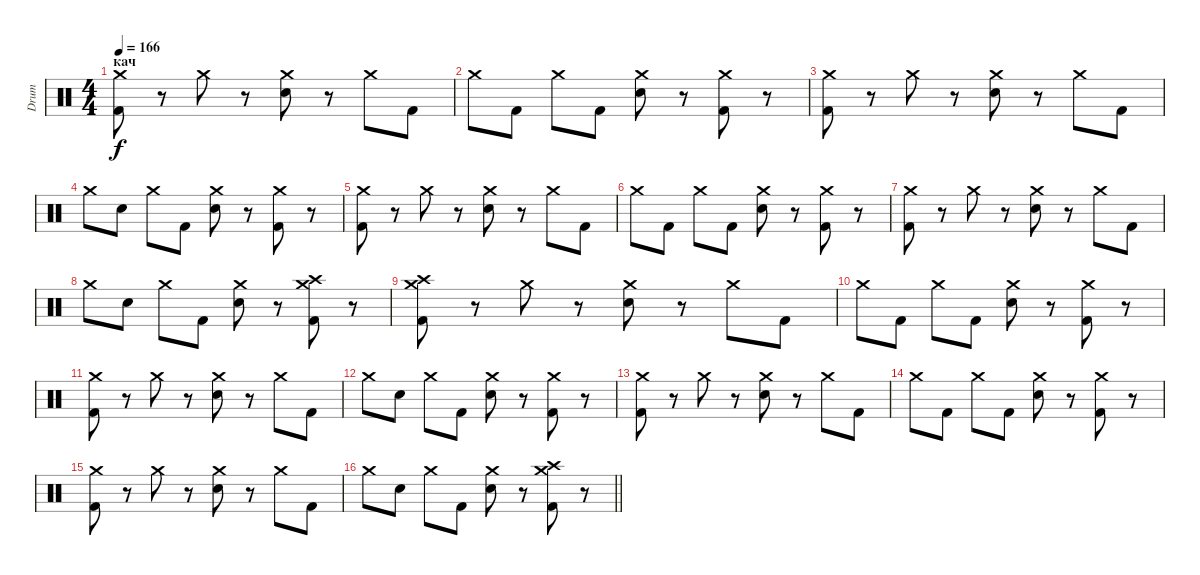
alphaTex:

\track ("Drum" "Drum") {instrument percussion}
\staff {score}
\articulation defaults
\ts (4 4)
\section ("" "кач")
\tempo 166
\clef neutral
\ks c
("Crash medium (hit)" "Kick (hit) 2").8{dy f} r.8 "Crash medium (hit)".8 r.8 ("Crash medium (hit)" "Snare (hit) 2").8 r.8 "Crash medium (hit)".8 "Kick (hit) 2".8 |
"Crash medium (hit)".8 "Kick (hit) 2".8 "Crash medium (hit)".8 "Kick (hit) 2".8 ("Crash medium (hit)" "Snare (hit) 2").8 r.8 ("Crash medium (hit)" "Kick (hit) 2").8 r.8 |
("Crash medium (hit)" "Kick (hit) 2").8 r.8 "Crash medium (hit)".8 r.8 ("Crash medium (hit)" "Snare (hit) 2").8 r.8 "Crash medium (hit)".8 "Kick (hit) 2".8 |
"Crash medium (hit)".8 "Snare (hit) 2".8 "Crash medium (hit)".8 "Kick (hit) 2".8 ("Crash medium (hit)" "Snare (hit) 2").8 r.8 ("Crash medium (hit)" "Kick (hit) 2").8 r.8 |
("Crash medium (hit)" "Kick (hit) 2").8 r.8 "Crash medium (hit)".8 r.8 ("Crash medium (hit)" "Snare (hit) 2").8 r.8 "Crash medium (hit)".8 "Kick (hit) 2".8 |
"Crash medium (hit)".8 "Kick (hit) 2".8 "Crash medium (hit)".8 "Kick (hit) 2".8 ("Crash medium (hit)" "Snare (hit) 2").8 r.8 ("Crash medium (hit)" "Kick (hit) 2").8 r.8 |
("Crash medium (hit)" "Kick (hit) 2").8 r.8 "Crash medium (hit)".8 r.8 ("Crash medium (hit)" "Snare (hit) 2").8 r.8 "Crash medium (hit)".8 "Kick (hit) 2".8 |
"Crash medium (hit)".8 "Snare (hit) 2".8 "Crash medium (hit)".8 "Kick (hit) 2".8 ("Crash medium (hit)" "Snare (hit) 2").8 r.8 ("Crash high (hit)" "Crash medium (hit)" "Kick (hit) 2").8 r.8 |
("Crash high (hit)" "Crash medium (hit)" "Kick (hit) 2").8 r.8 "Crash medium (hit)".8 r.8 ("Crash medium (hit)" "Snare (hit) 2").8 r.8 "Crash medium (hit)".8 "Kick (hit) 2".8 |
"Crash medium (hit)".8 "Kick (hit) 2".8 "Crash medium (hit)".8 "Kick (hit) 2".8 ("Crash medium (hit)" "Snare (hit) 2").8 r.8 ("Crash medium (hit)" "Kick (hit) 2").8 r.8 |
("Crash medium (hit)" "Kick (hit) 2").8 r.8 "Crash medium (hit)".8 r.8 ("Crash medium (hit)" "Snare (hit) 2").8 r.8 "Crash medium (hit)".8 "Kick (hit) 2".8 |
"Crash medium (hit)".8 "Snare (hit) 2".8 "Crash medium (hit)".8 "Kick (hit) 2".8 ("Crash medium (hit)" "Snare (hit) 2").8 r.8 ("Crash medium (hit)" "Kick (hit) 2").8 r.8 |
("Crash medium (hit)" "Kick (hit) 2").8 r.8 "Crash medium (hit)".8 r.8 ("Crash medium (hit)" "Snare (hit) 2").8 r.8 "Crash medium (hit)".8 "Kick (hit) 2".8 |
"Crash medium (hit)".8 "Kick (hit) 2".8 "Crash medium (hit)".8 "Kick (hit) 2".8 ("Crash medium (hit)" "Snare (hit) 2").8 r.8 ("Crash medium (hit)" "Kick (hit) 2").8 r.8 |
("Crash medium (hit)" "Kick (hit) 2").8 r.8 "Crash medium (hit)".8 r.8 ("Crash medium (hit)" "Snare (hit) 2").8 r.8 "Crash medium (hit)".8 "Kick (hit) 2".8 |
\barLineRight lightlight "Crash medium (hit)".8 "Snare (hit) 2".8 "Crash medium (hit)".8 "Kick (hit) 2".8
("Crash medium (hit)" "Snare (hit) 2").8 r.8 ("Crash high (hit)" "Crash medium (hit)" "Kick (hit) 2").8 r.8
